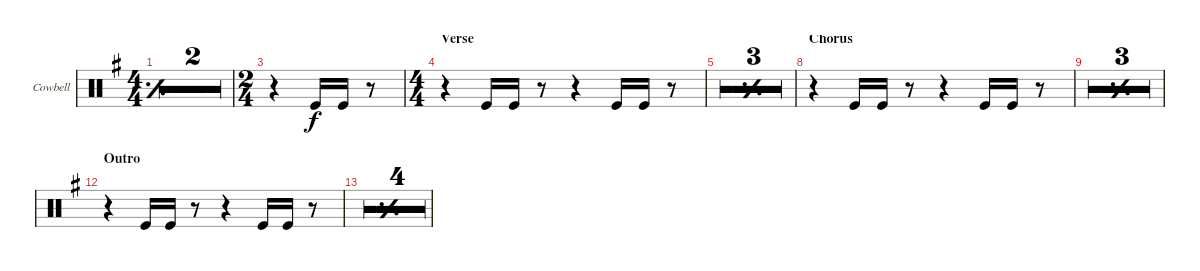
\defaultSystemsLayout 4
\bracketExtendMode groupsimilarinstruments
\firstSystemTrackNameOrientation horizontal
\otherSystemsTrackNameOrientation horizontal
\track ("Cowbell" "Cowbell") {multiBarRest instrument percussion}
\staff {score}
\articulation defaults
\ts (4 4)
\tempo 94
\clef neutral
\simile simple
\ks eminor
|
|
\ts (2 4)
r.4 "Kick (hit)".16 "Kick (hit)".16 r.8 |
\ts (4 4)
\section ("" "Verse")
r.4 "Kick (hit)".16 "Kick (hit)".16 r.8 r.4 "Kick (hit)".16 "Kick (hit)".16 r.8 |
\simile simple
|
|
|
\section ("" "Chorus")
\simile none
r.4 "Kick (hit)".16 "Kick (hit)".16 r.8 r.4 "Kick (hit)".16 "Kick (hit)".16 r.8 |
\simile simple
|
|
|
\section ("" "Outro")
\simile none
r.4 "Kick (hit)".16 "Kick (hit)".16 r.8 r.4 "Kick (hit)".16 "Kick (hit)".16 r.8 |
\simile simple
|
|
|
\simile none
r.1
